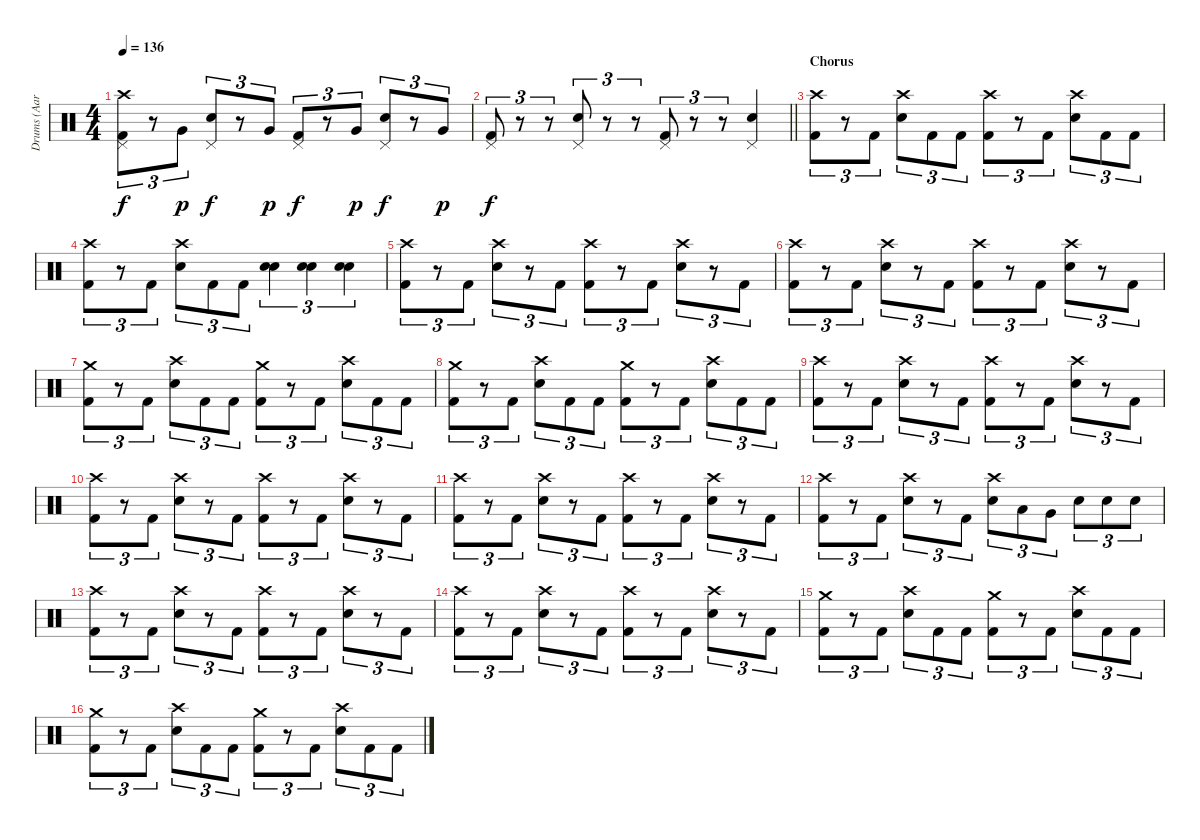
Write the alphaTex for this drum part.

\track ("Drums (Aaron Solowoniuk)" "Drums (Aar") {instrument percussion}
\staff {score}
\articulation defaults
\ts (4 4)
\tempo 136
\clef neutral
\ks c
("Pedal Hi-Hat (hit)" "Kick (hit) 2" "Crash high (hit)").8{tu (3 2) dy f} r.8{tu (3 2)} "Very Low Tom (hit)".8{tu (3 2) dy p} ("Pedal Hi-Hat (hit)" "Electric Snare (hit)").8{tu (3 2) dy f} r.8{tu (3 2)} "Very Low Tom (hit)".8{tu (3 2) dy p} ("Pedal Hi-Hat (hit)" "Kick (hit) 2").8{tu (3 2) dy f} r.8{tu (3 2)} "Very Low Tom (hit)".8{tu (3 2) dy p} ("Pedal Hi-Hat (hit)" "Electric Snare (hit)").8{tu (3 2) dy f} r.8{tu (3 2)} "Very Low Tom (hit)".8{tu (3 2) dy p} |
\barLineRight lightlight
("Pedal Hi-Hat (hit)" "Kick (hit) 2").8{tu (3 2) dy f} r.8{tu (3 2)} r.8{tu (3 2)} ("Pedal Hi-Hat (hit)" "Electric Snare (hit)").8{tu (3 2)} r.8{tu (3 2)} r.8{tu (3 2)} ("Pedal Hi-Hat (hit)" "Kick (hit) 2").8{tu (3 2)} r.8{tu (3 2)} r.8{tu (3 2)} ("Pedal Hi-Hat (hit)" "Electric Snare (hit)").4 |
\section ("" "Chorus")
("Kick (hit) 2" "Crash high (hit)").8{tu (3 2)} r.8{tu (3 2)} "Kick (hit) 2".8{tu (3 2)} ("Electric Snare (hit)" "Crash high (hit)").8{tu (3 2)} "Kick (hit) 2".8{tu (3 2)} "Kick (hit) 2".8{tu (3 2)} ("Kick (hit) 2" "Crash high (hit)").8{tu (3 2)} r.8{tu (3 2)} "Kick (hit) 2".8{tu (3 2)} ("Electric Snare (hit)" "Crash high (hit)").8{tu (3 2)} "Kick (hit) 2".8{tu (3 2)} "Kick (hit) 2".8{tu (3 2)} |
("Kick (hit) 2" "Crash high (hit)").8{tu (3 2)} r.8{tu (3 2)} "Kick (hit) 2".8{tu (3 2)} ("Electric Snare (hit)" "Crash high (hit)").8{tu (3 2)} "Kick (hit) 2".8{tu (3 2)} "Kick (hit) 2".8{tu (3 2)} ("Electric Snare (hit)" "Electric Snare (hit)").4{tu (3 2)} ("Electric Snare (hit)" "Electric Snare (hit)").4{tu (3 2)} ("Electric Snare (hit)" "Electric Snare (hit)").4{tu (3 2)} |
("Kick (hit) 2" "Crash high (hit)").8{tu (3 2)} r.8{tu (3 2)} "Kick (hit) 2".8{tu (3 2)} ("Electric Snare (hit)" "Crash high (hit)").8{tu (3 2)} r.8{tu (3 2)} "Kick (hit) 2".8{tu (3 2)} ("Kick (hit) 2" "Crash high (hit)").8{tu (3 2)} r.8{tu (3 2)} "Kick (hit) 2".8{tu (3 2)} ("Electric Snare (hit)" "Crash high (hit)").8{tu (3 2)} r.8{tu (3 2)} "Kick (hit) 2".8{tu (3 2)} |
("Kick (hit) 2" "Crash high (hit)").8{tu (3 2)} r.8{tu (3 2)} "Kick (hit) 2".8{tu (3 2)} ("Electric Snare (hit)" "Crash high (hit)").8{tu (3 2)} r.8{tu (3 2)} "Kick (hit) 2".8{tu (3 2)} ("Kick (hit) 2" "Crash high (hit)").8{tu (3 2)} r.8{tu (3 2)} "Kick (hit) 2".8{tu (3 2)} ("Electric Snare (hit)" "Crash high (hit)").8{tu (3 2)} r.8{tu (3 2)} "Kick (hit) 2".8{tu (3 2)} |
("Crash medium (hit)" "Kick (hit) 2").8{tu (3 2)} r.8{tu (3 2)} "Kick (hit) 2".8{tu (3 2)} ("Crash high (hit)" "Electric Snare (hit)").8{tu (3 2)} "Kick (hit) 2".8{tu (3 2)} "Kick (hit) 2".8{tu (3 2)} ("Crash medium (hit)" "Kick (hit) 2").8{tu (3 2)} r.8{tu (3 2)} "Kick (hit) 2".8{tu (3 2)} ("Crash high (hit)" "Electric Snare (hit)").8{tu (3 2)} "Kick (hit) 2".8{tu (3 2)} "Kick (hit) 2".8{tu (3 2)} |
("Crash medium (hit)" "Kick (hit) 2").8{tu (3 2)} r.8{tu (3 2)} "Kick (hit) 2".8{tu (3 2)} ("Crash high (hit)" "Electric Snare (hit)").8{tu (3 2)} "Kick (hit) 2".8{tu (3 2)} "Kick (hit) 2".8{tu (3 2)} ("Crash medium (hit)" "Kick (hit) 2").8{tu (3 2)} r.8{tu (3 2)} "Kick (hit) 2".8{tu (3 2)} ("Crash high (hit)" "Electric Snare (hit)").8{tu (3 2)} "Kick (hit) 2".8{tu (3 2)} "Kick (hit) 2".8{tu (3 2)} |
("Crash high (hit)" "Kick (hit) 2").8{tu (3 2)} r.8{tu (3 2)} "Kick (hit) 2".8{tu (3 2)} ("Crash high (hit)" "Electric Snare (hit)").8{tu (3 2)} r.8{tu (3 2)} "Kick (hit) 2".8{tu (3 2)} ("Crash high (hit)" "Kick (hit) 2").8{tu (3 2)} r.8{tu (3 2)} "Kick (hit) 2".8{tu (3 2)} ("Crash high (hit)" "Electric Snare (hit)").8{tu (3 2)} r.8{tu (3 2)} "Kick (hit) 2".8{tu (3 2)} |
("Crash high (hit)" "Kick (hit) 2").8{tu (3 2)} r.8{tu (3 2)} "Kick (hit) 2".8{tu (3 2)} ("Crash high (hit)" "Electric Snare (hit)").8{tu (3 2)} r.8{tu (3 2)} "Kick (hit) 2".8{tu (3 2)} ("Crash high (hit)" "Kick (hit) 2").8{tu (3 2)} r.8{tu (3 2)} "Kick (hit) 2".8{tu (3 2)} ("Crash high (hit)" "Electric Snare (hit)").8{tu (3 2)} r.8{tu (3 2)} "Kick (hit) 2".8{tu (3 2)} |
("Crash high (hit)" "Kick (hit) 2").8{tu (3 2)} r.8{tu (3 2)} "Kick (hit) 2".8{tu (3 2)} ("Crash high (hit)" "Electric Snare (hit)").8{tu (3 2)} r.8{tu (3 2)} "Kick (hit) 2".8{tu (3 2)} ("Crash high (hit)" "Kick (hit) 2").8{tu (3 2)} r.8{tu (3 2)} "Kick (hit) 2".8{tu (3 2)} ("Crash high (hit)" "Electric Snare (hit)").8{tu (3 2)} r.8{tu (3 2)} "Kick (hit) 2".8{tu (3 2)} |
("Kick (hit) 2" "Crash high (hit)").8{tu (3 2)} r.8{tu (3 2)} "Kick (hit) 2".8{tu (3 2)} ("Electric Snare (hit)" "Crash high (hit)").8{tu (3 2)} r.8{tu (3 2)} "Kick (hit) 2".8{tu (3 2)} ("Electric Snare (hit)" "Crash high (hit)").8{tu (3 2)} "Low Tom (hit)".8{tu (3 2)} "Very Low Tom (hit)".8{tu (3 2)} "Electric Snare (hit)".8{tu (3 2)} "Electric Snare (hit)".8{tu (3 2)} "Electric Snare (hit)".8{tu (3 2)} |
("Kick (hit) 2" "Crash high (hit)").8{tu (3 2)} r.8{tu (3 2)} "Kick (hit) 2".8{tu (3 2)} ("Electric Snare (hit)" "Crash high (hit)").8{tu (3 2)} r.8{tu (3 2)} "Kick (hit) 2".8{tu (3 2)} ("Kick (hit) 2" "Crash high (hit)").8{tu (3 2)} r.8{tu (3 2)} "Kick (hit) 2".8{tu (3 2)} ("Electric Snare (hit)" "Crash high (hit)").8{tu (3 2)} r.8{tu (3 2)} "Kick (hit) 2".8{tu (3 2)} |
("Kick (hit) 2" "Crash high (hit)").8{tu (3 2)} r.8{tu (3 2)} "Kick (hit) 2".8{tu (3 2)} ("Electric Snare (hit)" "Crash high (hit)").8{tu (3 2)} r.8{tu (3 2)} "Kick (hit) 2".8{tu (3 2)} ("Kick (hit) 2" "Crash high (hit)").8{tu (3 2)} r.8{tu (3 2)} "Kick (hit) 2".8{tu (3 2)} ("Electric Snare (hit)" "Crash high (hit)").8{tu (3 2)} r.8{tu (3 2)} "Kick (hit) 2".8{tu (3 2)} |
("Crash medium (hit)" "Kick (hit) 2").8{tu (3 2)} r.8{tu (3 2)} "Kick (hit) 2".8{tu (3 2)} ("Crash high (hit)" "Electric Snare (hit)").8{tu (3 2)} "Kick (hit) 2".8{tu (3 2)} "Kick (hit) 2".8{tu (3 2)} ("Crash medium (hit)" "Kick (hit) 2").8{tu (3 2)} r.8{tu (3 2)} "Kick (hit) 2".8{tu (3 2)} ("Crash high (hit)" "Electric Snare (hit)").8{tu (3 2)} "Kick (hit) 2".8{tu (3 2)} "Kick (hit) 2".8{tu (3 2)} |
("Crash medium (hit)" "Kick (hit) 2").8{tu (3 2)} r.8{tu (3 2)} "Kick (hit) 2".8{tu (3 2)} ("Crash high (hit)" "Electric Snare (hit)").8{tu (3 2)} "Kick (hit) 2".8{tu (3 2)} "Kick (hit) 2".8{tu (3 2)} ("Crash medium (hit)" "Kick (hit) 2").8{tu (3 2)} r.8{tu (3 2)} "Kick (hit) 2".8{tu (3 2)} ("Crash high (hit)" "Electric Snare (hit)").8{tu (3 2)} "Kick (hit) 2".8{tu (3 2)} "Kick (hit) 2".8{tu (3 2)}
